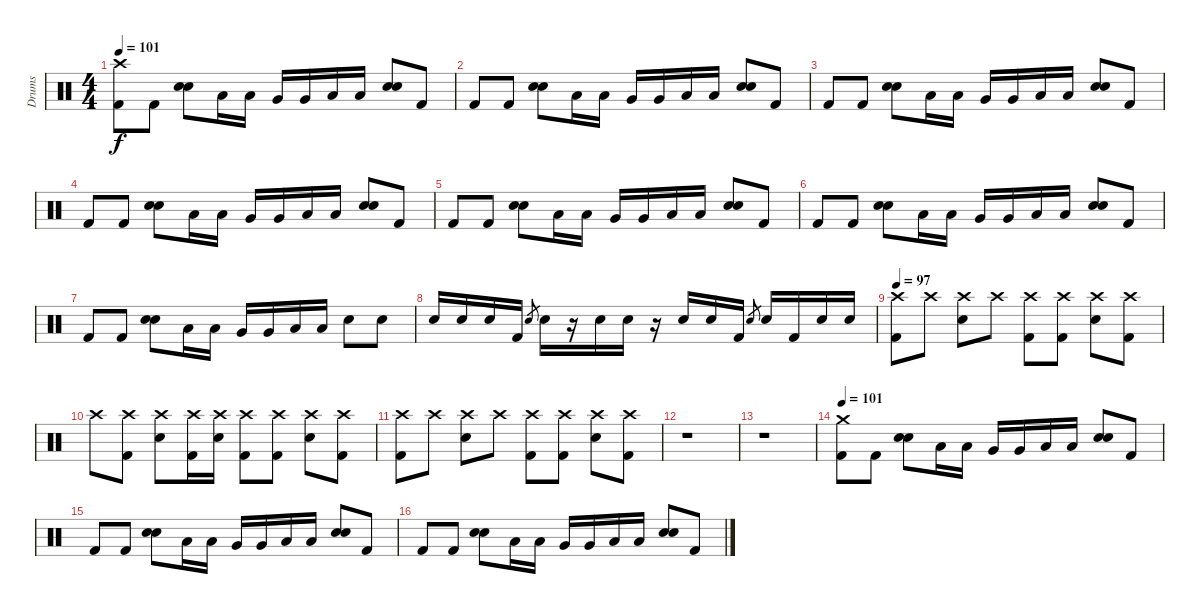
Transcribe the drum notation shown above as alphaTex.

\track ("Drums" "Drums") {instrument percussion}
\staff {score}
\articulation defaults
\ts (4 4)
\tempo 101
\clef neutral
\ks c
("Crash high (hit)" "Kick (hit) 2").8{dy f} "Kick (hit) 2".8 ("Electric Snare (hit)" "Electric Snare (hit)").8 "Low Tom (hit)".16 "Low Tom (hit)".16 "Very Low Tom (hit)".16 "Very Low Tom (hit)".16 "Low Floor Tom (hit)".16 "Low Floor Tom (hit)".16 ("Electric Snare (hit)" "Electric Snare (hit)").8 "Kick (hit) 2".8 |
"Kick (hit) 2".8 "Kick (hit) 2".8 ("Electric Snare (hit)" "Electric Snare (hit)").8 "Low Tom (hit)".16 "Low Tom (hit)".16 "Very Low Tom (hit)".16 "Very Low Tom (hit)".16 "Low Floor Tom (hit)".16 "Low Floor Tom (hit)".16 ("Electric Snare (hit)" "Electric Snare (hit)").8 "Kick (hit) 2".8 |
"Kick (hit) 2".8 "Kick (hit) 2".8 ("Electric Snare (hit)" "Electric Snare (hit)").8 "Low Tom (hit)".16 "Low Tom (hit)".16 "Very Low Tom (hit)".16 "Very Low Tom (hit)".16 "Low Floor Tom (hit)".16 "Low Floor Tom (hit)".16 ("Electric Snare (hit)" "Electric Snare (hit)").8 "Kick (hit) 2".8 |
"Kick (hit) 2".8 "Kick (hit) 2".8 ("Electric Snare (hit)" "Electric Snare (hit)").8 "Low Tom (hit)".16 "Low Tom (hit)".16 "Very Low Tom (hit)".16 "Very Low Tom (hit)".16 "Low Floor Tom (hit)".16 "Low Floor Tom (hit)".16 ("Electric Snare (hit)" "Electric Snare (hit)").8 "Kick (hit) 2".8 |
"Kick (hit) 2".8 "Kick (hit) 2".8 ("Electric Snare (hit)" "Electric Snare (hit)").8 "Low Tom (hit)".16 "Low Tom (hit)".16 "Very Low Tom (hit)".16 "Very Low Tom (hit)".16 "Low Floor Tom (hit)".16 "Low Floor Tom (hit)".16 ("Electric Snare (hit)" "Electric Snare (hit)").8 "Kick (hit) 2".8 |
"Kick (hit) 2".8 "Kick (hit) 2".8 ("Electric Snare (hit)" "Electric Snare (hit)").8 "Low Tom (hit)".16 "Low Tom (hit)".16 "Very Low Tom (hit)".16 "Very Low Tom (hit)".16 "Low Floor Tom (hit)".16 "Low Floor Tom (hit)".16 ("Electric Snare (hit)" "Electric Snare (hit)").8 "Kick (hit) 2".8 |
"Kick (hit) 2".8 "Kick (hit) 2".8 ("Electric Snare (hit)" "Electric Snare (hit)").8 "Low Tom (hit)".16 "Low Tom (hit)".16 "Very Low Tom (hit)".16 "Very Low Tom (hit)".16 "Low Floor Tom (hit)".16 "Low Floor Tom (hit)".16 "Electric Snare (hit)".8 "Electric Snare (hit)".8 |
"Electric Snare (hit)".16 "Electric Snare (hit)".16 "Electric Snare (hit)".16 "Kick (hit) 2".16 "Electric Snare (hit)".8{gr} "Electric Snare (hit)".16 r.16 "Electric Snare (hit)".16 "Electric Snare (hit)".16 r.16 "Electric Snare (hit)".16 "Electric Snare (hit)".16 "Kick (hit) 2".16 "Electric Snare (hit)".8{gr} "Electric Snare (hit)".16 "Kick (hit) 2".16 "Electric Snare (hit)".16 "Electric Snare (hit)".16 |
\tempo 97
("Crash high (hit)" "Kick (hit) 2").8 "Crash high (hit)".8 ("Crash high (hit)" "Electric Snare (hit)").8 "Crash high (hit)".8 ("Crash high (hit)" "Kick (hit) 2").8 ("Crash high (hit)" "Kick (hit) 2").8 ("Crash high (hit)" "Electric Snare (hit)").8 ("Crash high (hit)" "Kick (hit) 2").8 |
"Crash high (hit)".8 ("Crash high (hit)" "Kick (hit) 2").8 ("Crash high (hit)" "Electric Snare (hit)").8 ("Crash high (hit)" "Kick (hit) 2").16 ("Crash high (hit)" "Electric Snare (hit)").16 ("Crash high (hit)" "Kick (hit) 2").8 ("Crash high (hit)" "Kick (hit) 2").8 ("Crash high (hit)" "Electric Snare (hit)").8 ("Crash high (hit)" "Kick (hit) 2").8 |
("Crash high (hit)" "Kick (hit) 2").8 "Crash high (hit)".8 ("Crash high (hit)" "Electric Snare (hit)").8 "Crash high (hit)".8 ("Crash high (hit)" "Kick (hit) 2").8 ("Crash high (hit)" "Kick (hit) 2").8 ("Crash high (hit)" "Electric Snare (hit)").8 ("Crash high (hit)" "Kick (hit) 2").8 |
r.1 |
r.1 |
\tempo 101
("Crash medium (hit)" "Kick (hit) 2").8 "Kick (hit) 2".8 ("Electric Snare (hit)" "Electric Snare (hit)").8 "Low Tom (hit)".16 "Low Tom (hit)".16 "Very Low Tom (hit)".16 "Very Low Tom (hit)".16 "Low Floor Tom (hit)".16 "Low Floor Tom (hit)".16 ("Electric Snare (hit)" "Electric Snare (hit)").8 "Kick (hit) 2".8 |
"Kick (hit) 2".8 "Kick (hit) 2".8 ("Electric Snare (hit)" "Electric Snare (hit)").8 "Low Tom (hit)".16 "Low Tom (hit)".16 "Very Low Tom (hit)".16 "Very Low Tom (hit)".16 "Low Floor Tom (hit)".16 "Low Floor Tom (hit)".16 ("Electric Snare (hit)" "Electric Snare (hit)").8 "Kick (hit) 2".8 |
"Kick (hit) 2".8 "Kick (hit) 2".8 ("Electric Snare (hit)" "Electric Snare (hit)").8 "Low Tom (hit)".16 "Low Tom (hit)".16 "Very Low Tom (hit)".16 "Very Low Tom (hit)".16 "Low Floor Tom (hit)".16 "Low Floor Tom (hit)".16 ("Electric Snare (hit)" "Electric Snare (hit)").8 "Kick (hit) 2".8
